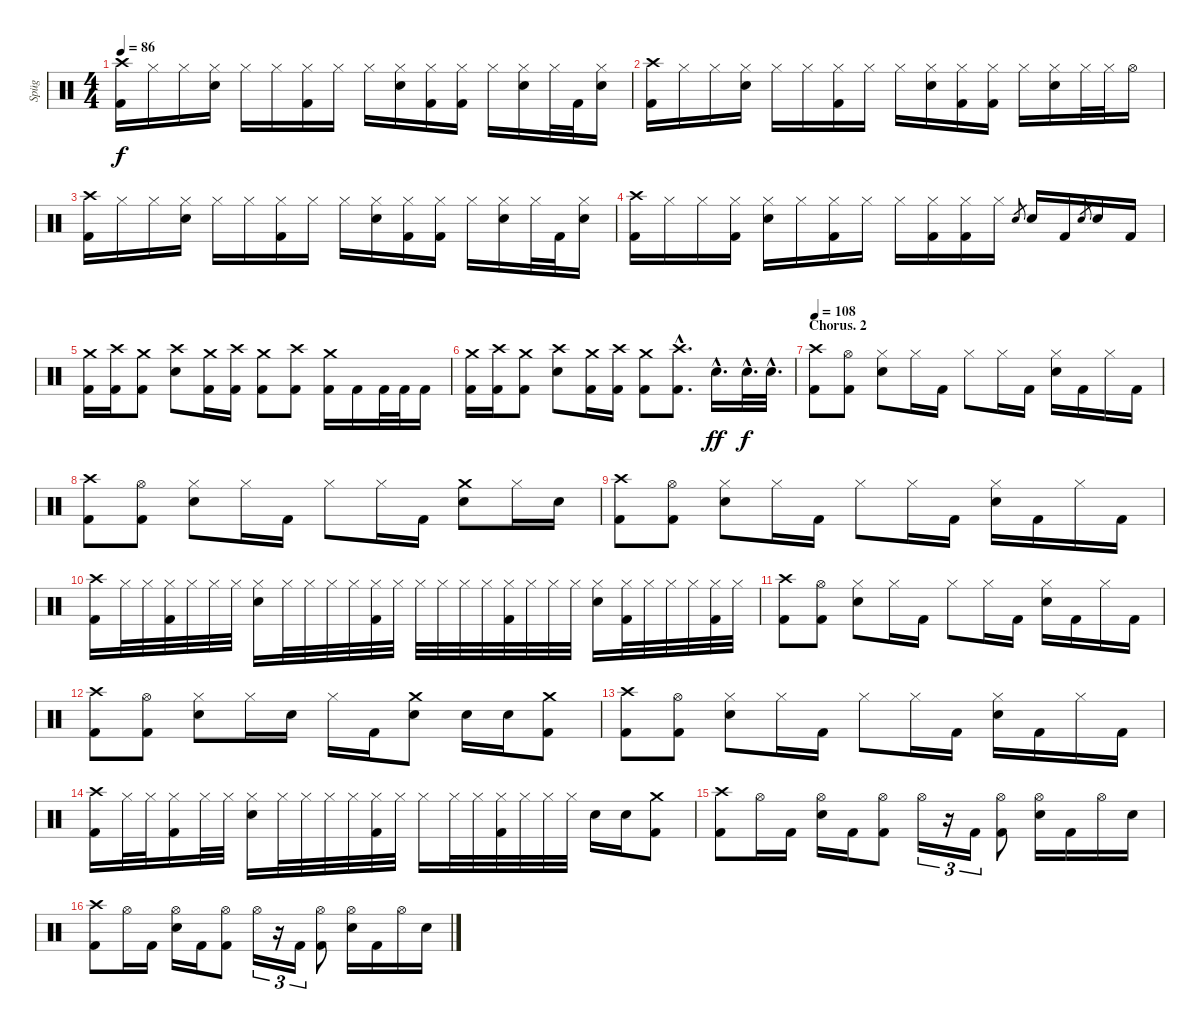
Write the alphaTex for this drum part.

\track ("Spüg" "Spüg") {instrument percussion}
\staff {score}
\articulation defaults
\ts (4 4)
\tempo 86
\clef neutral
\ks c
("Crash high (hit)" "Kick (hit) 2").16{dy f} "Hi-Hat (closed)".16 "Hi-Hat (closed)".16 ("Hi-Hat (closed)" "Electric Snare (hit)").16 "Hi-Hat (closed)".16 "Hi-Hat (closed)".16 ("Hi-Hat (closed)" "Kick (hit) 2").16 "Hi-Hat (closed)".16 "Hi-Hat (closed)".16 ("Hi-Hat (closed)" "Electric Snare (hit)").16 ("Hi-Hat (closed)" "Kick (hit) 2").16 ("Hi-Hat (closed)" "Kick (hit) 2").16 "Hi-Hat (closed)".16 ("Hi-Hat (closed)" "Electric Snare (hit)").16 "Hi-Hat (closed)".32 "Kick (hit) 2".32 ("Hi-Hat (closed)" "Electric Snare (hit)").16 |
("Crash high (hit)" "Kick (hit) 2").16 "Hi-Hat (closed)".16 "Hi-Hat (closed)".16 ("Hi-Hat (closed)" "Electric Snare (hit)").16 "Hi-Hat (closed)".16 "Hi-Hat (closed)".16 ("Hi-Hat (closed)" "Kick (hit) 2").16 "Hi-Hat (closed)".16 "Hi-Hat (closed)".16 ("Hi-Hat (closed)" "Electric Snare (hit)").16 ("Hi-Hat (closed)" "Kick (hit) 2").16 ("Hi-Hat (closed)" "Kick (hit) 2").16 "Hi-Hat (closed)".16 ("Hi-Hat (closed)" "Electric Snare (hit)").16 "Hi-Hat (closed)".32 "Hi-Hat (closed)".32 "Hi-Hat (open)".16 |
("Crash high (hit)" "Kick (hit) 2").16 "Hi-Hat (closed)".16 "Hi-Hat (closed)".16 ("Hi-Hat (closed)" "Electric Snare (hit)").16 "Hi-Hat (closed)".16 "Hi-Hat (closed)".16 ("Hi-Hat (closed)" "Kick (hit) 2").16 "Hi-Hat (closed)".16 "Hi-Hat (closed)".16 ("Hi-Hat (closed)" "Electric Snare (hit)").16 ("Hi-Hat (closed)" "Kick (hit) 2").16 ("Hi-Hat (closed)" "Kick (hit) 2").16 "Hi-Hat (closed)".16 ("Hi-Hat (closed)" "Electric Snare (hit)").16 "Hi-Hat (closed)".32 "Kick (hit) 2".32 ("Hi-Hat (closed)" "Electric Snare (hit)").16 |
("Crash high (hit)" "Kick (hit) 2").16 "Hi-Hat (closed)".16 "Hi-Hat (closed)".16 ("Hi-Hat (closed)" "Kick (hit) 2").16 ("Hi-Hat (closed)" "Electric Snare (hit)").16 "Hi-Hat (closed)".16 ("Hi-Hat (closed)" "Kick (hit) 2").16 "Hi-Hat (closed)".16 "Hi-Hat (closed)".16 ("Hi-Hat (closed)" "Kick (hit) 2").16 ("Hi-Hat (closed)" "Kick (hit) 2").16 "Hi-Hat (closed)".16 "Electric Snare (hit)".8{gr} "Electric Snare (hit)".16 "Kick (hit) 2".16 "Electric Snare (hit)".8{gr} "Electric Snare (hit)".16 "Kick (hit) 2".16 |
("Crash medium (hit)" "Kick (hit) 2").16 ("Crash high (hit)" "Kick (hit) 2").16 ("Crash medium (hit)" "Kick (hit) 2").8 ("Crash high (hit)" "Electric Snare (hit)").8 ("Crash medium (hit)" "Kick (hit) 2").16 ("Crash high (hit)" "Kick (hit) 2").16 ("Crash medium (hit)" "Kick (hit) 2").8 ("Crash high (hit)" "Kick (hit) 2").8 ("Crash medium (hit)" "Kick (hit) 2").16 "Kick (hit) 2".16 "Kick (hit) 2".32 "Kick (hit) 2".32 "Kick (hit) 2".16 |
("Crash medium (hit)" "Kick (hit) 2").16 ("Crash high (hit)" "Kick (hit) 2").16 ("Crash medium (hit)" "Kick (hit) 2").8 ("Crash high (hit)" "Electric Snare (hit)").8 ("Crash medium (hit)" "Kick (hit) 2").16 ("Crash high (hit)" "Kick (hit) 2").16 ("Crash medium (hit)" "Kick (hit) 2").8 ("Crash high (hit)"{hac} "Kick (hit) 2"{hac}).8{d} "Electric Snare (hit)"{hac}.16{d dy ff} "Electric Snare (hit)"{hac}.32{d dy f} "Electric Snare (hit)"{hac}.32{d} |
\section ("" "Chorus. 2")
\tempo 108
("Crash high (hit)" "Kick (hit) 2").8 ("Hi-Hat (open)" "Kick (hit) 2").8 ("Hi-Hat (closed)" "Electric Snare (hit)").8 "Hi-Hat (closed)".16 "Kick (hit) 2".16 "Hi-Hat (closed)".8 "Hi-Hat (closed)".16 "Kick (hit) 2".16 ("Hi-Hat (closed)" "Electric Snare (hit)").16 "Kick (hit) 2".16 "Hi-Hat (closed)".16 "Kick (hit) 2".16 |
("Crash high (hit)" "Kick (hit) 2").8 ("Hi-Hat (open)" "Kick (hit) 2").8 ("Hi-Hat (closed)" "Electric Snare (hit)").8 "Hi-Hat (closed)".16 "Kick (hit) 2".16 "Hi-Hat (closed)".8 "Hi-Hat (closed)".16 "Kick (hit) 2".16 ("Crash medium (hit)" "Electric Snare (hit)").8 "Hi-Hat (closed)".16 "Electric Snare (hit)".16 |
("Crash high (hit)" "Kick (hit) 2").8 ("Hi-Hat (open)" "Kick (hit) 2").8 ("Hi-Hat (closed)" "Electric Snare (hit)").8 "Hi-Hat (closed)".16 "Kick (hit) 2".16 "Hi-Hat (closed)".8 "Hi-Hat (closed)".16 "Kick (hit) 2".16 ("Hi-Hat (closed)" "Electric Snare (hit)").16 "Kick (hit) 2".16 "Hi-Hat (closed)".16 "Kick (hit) 2".16 |
("Crash high (hit)" "Kick (hit) 2").16 "Hi-Hat (closed)".32 "Hi-Hat (closed)".32 ("Hi-Hat (closed)" "Kick (hit) 2").32 "Hi-Hat (closed)".32 "Hi-Hat (closed)".32 "Hi-Hat (closed)".32 ("Hi-Hat (closed)" "Electric Snare (hit)").16 "Hi-Hat (closed)".32 "Hi-Hat (closed)".32 "Hi-Hat (closed)".32 "Hi-Hat (closed)".32 ("Hi-Hat (closed)" "Kick (hit) 2").32 "Hi-Hat (closed)".32 "Hi-Hat (closed)".32 "Hi-Hat (closed)".32 "Hi-Hat (closed)".32 "Hi-Hat (closed)".32 ("Hi-Hat (closed)" "Kick (hit) 2").32 "Hi-Hat (closed)".32 "Hi-Hat (closed)".32 "Hi-Hat (closed)".32 ("Hi-Hat (closed)" "Electric Snare (hit)").16 ("Hi-Hat (closed)" "Kick (hit) 2").32 "Hi-Hat (closed)".32 "Hi-Hat (closed)".32 "Hi-Hat (closed)".32 ("Hi-Hat (closed)" "Kick (hit) 2").32 "Hi-Hat (closed)".32 |
("Crash high (hit)" "Kick (hit) 2").8 ("Hi-Hat (open)" "Kick (hit) 2").8 ("Hi-Hat (closed)" "Electric Snare (hit)").8 "Hi-Hat (closed)".16 "Kick (hit) 2".16 "Hi-Hat (closed)".8 "Hi-Hat (closed)".16 "Kick (hit) 2".16 ("Hi-Hat (closed)" "Electric Snare (hit)").16 "Kick (hit) 2".16 "Hi-Hat (closed)".16 "Kick (hit) 2".16 |
("Crash high (hit)" "Kick (hit) 2").8 ("Hi-Hat (open)" "Kick (hit) 2").8 ("Hi-Hat (closed)" "Electric Snare (hit)").8 "Hi-Hat (closed)".16 "Electric Snare (hit)".16 "Hi-Hat (closed)".16 "Kick (hit) 2".16 ("Crash medium (hit)" "Electric Snare (hit)").8 "Electric Snare (hit)".16 "Electric Snare (hit)".16 ("Crash medium (hit)" "Kick (hit) 2").8 |
("Crash high (hit)" "Kick (hit) 2").8 ("Hi-Hat (open)" "Kick (hit) 2").8 ("Hi-Hat (closed)" "Electric Snare (hit)").8 "Hi-Hat (closed)".16 "Kick (hit) 2".16 "Hi-Hat (closed)".8 "Hi-Hat (closed)".16 "Kick (hit) 2".16 ("Hi-Hat (closed)" "Electric Snare (hit)").16 "Kick (hit) 2".16 "Hi-Hat (closed)".16 "Kick (hit) 2".16 |
("Crash high (hit)" "Kick (hit) 2").16 "Hi-Hat (closed)".32 "Hi-Hat (closed)".32 ("Hi-Hat (closed)" "Kick (hit) 2").16 "Hi-Hat (closed)".32 "Hi-Hat (closed)".32 ("Hi-Hat (closed)" "Electric Snare (hit)").16 "Hi-Hat (closed)".32 "Hi-Hat (closed)".32 "Hi-Hat (closed)".32 "Hi-Hat (closed)".32 ("Hi-Hat (closed)" "Kick (hit) 2").32 "Hi-Hat (closed)".32 "Hi-Hat (closed)".16 "Hi-Hat (closed)".32 "Hi-Hat (closed)".32 ("Hi-Hat (closed)" "Kick (hit) 2").32 "Hi-Hat (closed)".32 "Hi-Hat (closed)".32 "Hi-Hat (closed)".32 "Electric Snare (hit)".16 "Electric Snare (hit)".16 ("Crash medium (hit)" "Kick (hit) 2").8 |
("Crash high (hit)" "Kick (hit) 2").8 "Hi-Hat (open)".16 "Kick (hit) 2".16 ("Hi-Hat (open)" "Electric Snare (hit)").16 "Kick (hit) 2".16 ("Hi-Hat (open)" "Kick (hit) 2").8 "Hi-Hat (open)".16{tu (3 2)} r.16{tu (3 2)} "Kick (hit) 2".16{tu (3 2)} ("Hi-Hat (open)" "Kick (hit) 2").8 ("Hi-Hat (open)" "Electric Snare (hit)").16 "Kick (hit) 2".16 "Hi-Hat (open)".16 "Electric Snare (hit)".16 |
("Crash high (hit)" "Kick (hit) 2").8 "Hi-Hat (open)".16 "Kick (hit) 2".16 ("Hi-Hat (open)" "Electric Snare (hit)").16 "Kick (hit) 2".16 ("Hi-Hat (open)" "Kick (hit) 2").8 "Hi-Hat (open)".16{tu (3 2)} r.16{tu (3 2)} "Kick (hit) 2".16{tu (3 2)} ("Hi-Hat (open)" "Kick (hit) 2").8 ("Hi-Hat (open)" "Electric Snare (hit)").16 "Kick (hit) 2".16 "Hi-Hat (open)".16 "Electric Snare (hit)".16
